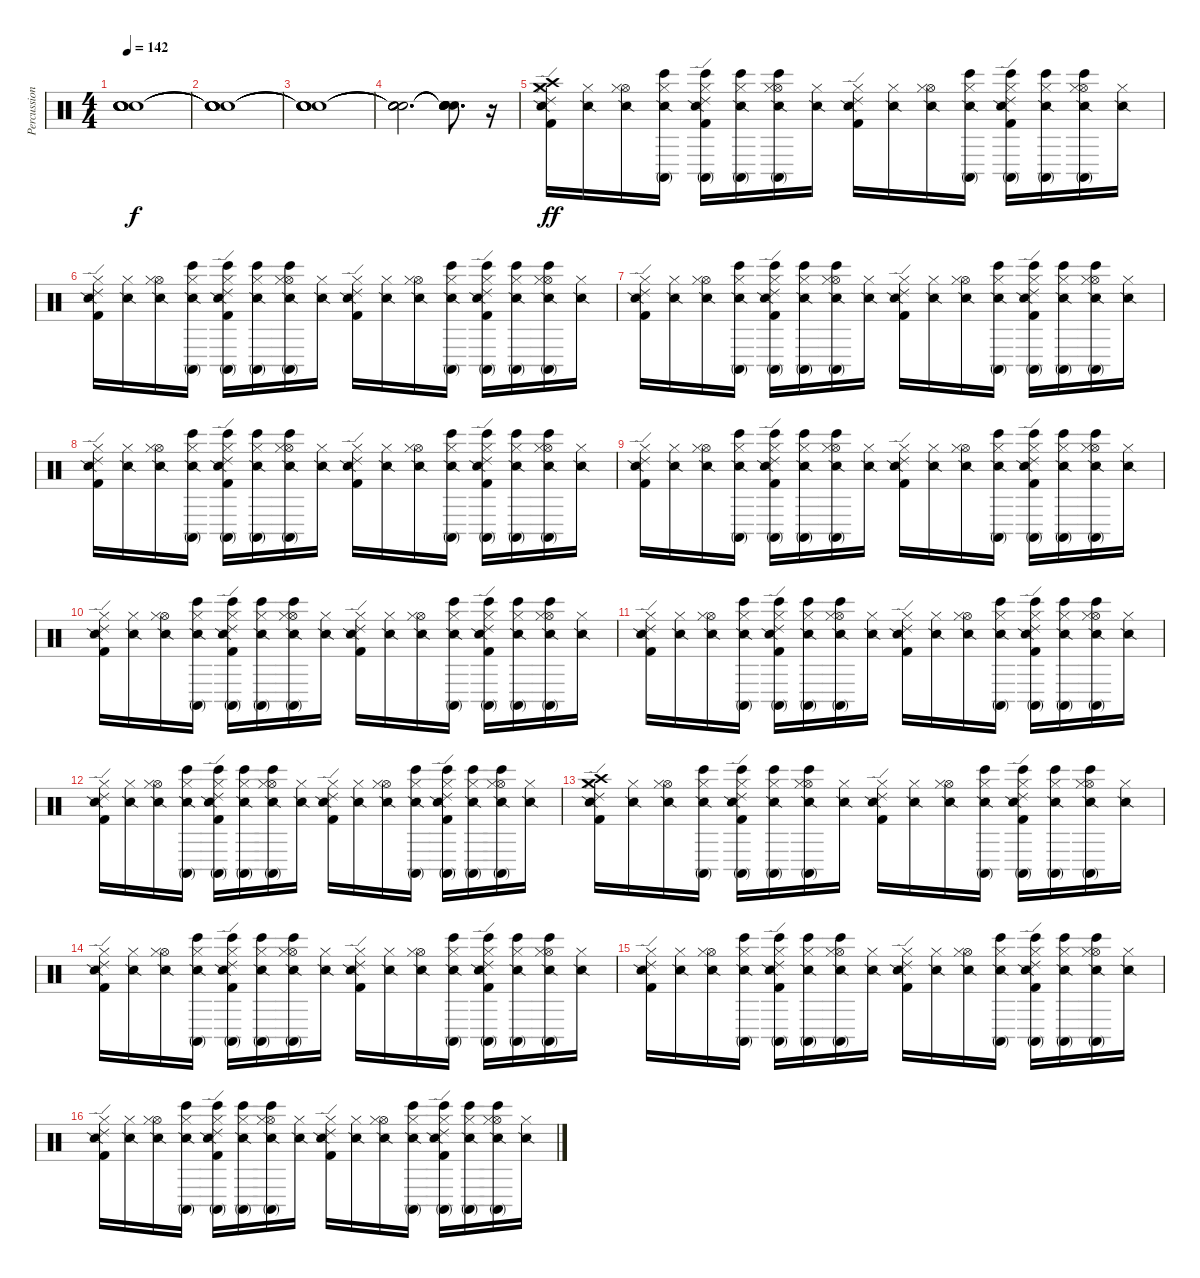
\track ("Percussion" "Percussion") {instrument percussion}
\staff {score}
\articulation defaults
\ts (4 4)
\tempo 142
\clef neutral
\ks c
("Snare (hit)"{t} "Snare (hit)"{t} "Snare (hit)"{t} "Snare (hit)"{t} "Snare (hit)"{t}).1{dy f} |
("Snare (hit)"{t} "Snare (hit)"{t} "Snare (hit)"{t} "Snare (hit)"{t} "Snare (hit)"{t}).1 |
("Snare (hit)"{t} "Snare (hit)"{t} "Snare (hit)"{t} "Snare (hit)"{t} "Snare (hit)"{t}).1 |
("Snare (hit)"{t} "Snare (hit)"{t} "Snare (hit)"{t} "Snare (hit)"{t} "Snare (hit)"{t}).2{d} ("Snare (hit)"{t} "Snare (hit)"{t} "Snare (hit)"{t} "Snare (hit)"{t} "Snare (hit)"{t}).8{d} r.16 |
("Ride (edge) 2" "Crash medium (hit)" "Crash high (hit)" "Hi-Hat (closed)" "Snare (side stick) 2" "Kick (hit) 2").16{dy ff} ("Hi-Hat (closed)" "Snare (side stick) 2").16 ("Hi-Hat (open)" "Hi-Hat (closed)" "Snare (side stick) 2").16 ("Conga high (mute)" "Bongo High (hit)" "Hi-Hat (closed)" "Snare (side stick) 2").16 ("Conga high (mute)" "Bongo High (hit)" "Ride (edge) 2" "Hi-Hat (closed)" "Snare (side stick) 2" "Kick (hit) 2").16 ("Conga high (mute)" "Bongo High (hit)" "Hi-Hat (closed)" "Snare (side stick) 2").16 ("Conga high (mute)" "Bongo High (hit)" "Hi-Hat (open)" "Hi-Hat (closed)" "Snare (side stick) 2").16 ("Hi-Hat (closed)" "Snare (side stick) 2").16 ("Ride (edge) 2" "Hi-Hat (closed)" "Snare (side stick) 2" "Kick (hit) 2").16 ("Hi-Hat (closed)" "Snare (side stick) 2").16 ("Hi-Hat (open)" "Hi-Hat (closed)" "Snare (side stick) 2").16 ("Conga high (mute)" "Bongo High (hit)" "Hi-Hat (closed)" "Snare (side stick) 2").16 ("Conga high (mute)" "Bongo High (hit)" "Ride (edge) 2" "Hi-Hat (closed)" "Snare (side stick) 2" "Kick (hit) 2").16 ("Conga high (mute)" "Bongo High (hit)" "Hi-Hat (closed)" "Snare (side stick) 2").16 ("Conga high (mute)" "Bongo High (hit)" "Hi-Hat (open)" "Hi-Hat (closed)" "Snare (side stick) 2").16 ("Hi-Hat (closed)" "Snare (side stick) 2").16 |
("Ride (edge) 2" "Hi-Hat (closed)" "Snare (side stick) 2" "Kick (hit) 2").16 ("Hi-Hat (closed)" "Snare (side stick) 2").16 ("Hi-Hat (open)" "Hi-Hat (closed)" "Snare (side stick) 2").16 ("Conga high (mute)" "Bongo High (hit)" "Hi-Hat (closed)" "Snare (side stick) 2").16 ("Conga high (mute)" "Bongo High (hit)" "Ride (edge) 2" "Hi-Hat (closed)" "Snare (side stick) 2" "Kick (hit) 2").16 ("Conga high (mute)" "Bongo High (hit)" "Hi-Hat (closed)" "Snare (side stick) 2").16 ("Conga high (mute)" "Bongo High (hit)" "Hi-Hat (open)" "Hi-Hat (closed)" "Snare (side stick) 2").16 ("Hi-Hat (closed)" "Snare (side stick) 2").16 ("Ride (edge) 2" "Hi-Hat (closed)" "Snare (side stick) 2" "Kick (hit) 2").16 ("Hi-Hat (closed)" "Snare (side stick) 2").16 ("Hi-Hat (open)" "Hi-Hat (closed)" "Snare (side stick) 2").16 ("Conga high (mute)" "Bongo High (hit)" "Hi-Hat (closed)" "Snare (side stick) 2").16 ("Conga high (mute)" "Bongo High (hit)" "Ride (edge) 2" "Hi-Hat (closed)" "Snare (side stick) 2" "Kick (hit) 2").16 ("Conga high (mute)" "Bongo High (hit)" "Hi-Hat (closed)" "Snare (side stick) 2").16 ("Conga high (mute)" "Bongo High (hit)" "Hi-Hat (open)" "Hi-Hat (closed)" "Snare (side stick) 2").16 ("Hi-Hat (closed)" "Snare (side stick) 2").16 |
("Ride (edge) 2" "Hi-Hat (closed)" "Snare (side stick) 2" "Kick (hit) 2").16 ("Hi-Hat (closed)" "Snare (side stick) 2").16 ("Hi-Hat (open)" "Hi-Hat (closed)" "Snare (side stick) 2").16 ("Conga high (mute)" "Bongo High (hit)" "Hi-Hat (closed)" "Snare (side stick) 2").16 ("Conga high (mute)" "Bongo High (hit)" "Ride (edge) 2" "Hi-Hat (closed)" "Snare (side stick) 2" "Kick (hit) 2").16 ("Conga high (mute)" "Bongo High (hit)" "Hi-Hat (closed)" "Snare (side stick) 2").16 ("Conga high (mute)" "Bongo High (hit)" "Hi-Hat (open)" "Hi-Hat (closed)" "Snare (side stick) 2").16 ("Hi-Hat (closed)" "Snare (side stick) 2").16 ("Ride (edge) 2" "Hi-Hat (closed)" "Snare (side stick) 2" "Kick (hit) 2").16 ("Hi-Hat (closed)" "Snare (side stick) 2").16 ("Hi-Hat (open)" "Hi-Hat (closed)" "Snare (side stick) 2").16 ("Conga high (mute)" "Bongo High (hit)" "Hi-Hat (closed)" "Snare (side stick) 2").16 ("Conga high (mute)" "Bongo High (hit)" "Ride (edge) 2" "Hi-Hat (closed)" "Snare (side stick) 2" "Kick (hit) 2").16 ("Conga high (mute)" "Bongo High (hit)" "Hi-Hat (closed)" "Snare (side stick) 2").16 ("Conga high (mute)" "Bongo High (hit)" "Hi-Hat (open)" "Hi-Hat (closed)" "Snare (side stick) 2").16 ("Hi-Hat (closed)" "Snare (side stick) 2").16 |
("Ride (edge) 2" "Hi-Hat (closed)" "Snare (side stick) 2" "Kick (hit) 2").16 ("Hi-Hat (closed)" "Snare (side stick) 2").16 ("Hi-Hat (open)" "Hi-Hat (closed)" "Snare (side stick) 2").16 ("Conga high (mute)" "Bongo High (hit)" "Hi-Hat (closed)" "Snare (side stick) 2").16 ("Conga high (mute)" "Bongo High (hit)" "Ride (edge) 2" "Hi-Hat (closed)" "Snare (side stick) 2" "Kick (hit) 2").16 ("Conga high (mute)" "Bongo High (hit)" "Hi-Hat (closed)" "Snare (side stick) 2").16 ("Conga high (mute)" "Bongo High (hit)" "Hi-Hat (open)" "Hi-Hat (closed)" "Snare (side stick) 2").16 ("Hi-Hat (closed)" "Snare (side stick) 2").16 ("Ride (edge) 2" "Hi-Hat (closed)" "Snare (side stick) 2" "Kick (hit) 2").16 ("Hi-Hat (closed)" "Snare (side stick) 2").16 ("Hi-Hat (open)" "Hi-Hat (closed)" "Snare (side stick) 2").16 ("Conga high (mute)" "Bongo High (hit)" "Hi-Hat (closed)" "Snare (side stick) 2").16 ("Conga high (mute)" "Bongo High (hit)" "Ride (edge) 2" "Hi-Hat (closed)" "Snare (side stick) 2" "Kick (hit) 2").16 ("Conga high (mute)" "Bongo High (hit)" "Hi-Hat (closed)" "Snare (side stick) 2").16 ("Conga high (mute)" "Bongo High (hit)" "Hi-Hat (open)" "Hi-Hat (closed)" "Snare (side stick) 2").16 ("Hi-Hat (closed)" "Snare (side stick) 2").16 |
("Ride (edge) 2" "Hi-Hat (closed)" "Snare (side stick) 2" "Kick (hit) 2").16 ("Hi-Hat (closed)" "Snare (side stick) 2").16 ("Hi-Hat (open)" "Hi-Hat (closed)" "Snare (side stick) 2").16 ("Conga high (mute)" "Bongo High (hit)" "Hi-Hat (closed)" "Snare (side stick) 2").16 ("Conga high (mute)" "Bongo High (hit)" "Ride (edge) 2" "Hi-Hat (closed)" "Snare (side stick) 2" "Kick (hit) 2").16 ("Conga high (mute)" "Bongo High (hit)" "Hi-Hat (closed)" "Snare (side stick) 2").16 ("Conga high (mute)" "Bongo High (hit)" "Hi-Hat (open)" "Hi-Hat (closed)" "Snare (side stick) 2").16 ("Hi-Hat (closed)" "Snare (side stick) 2").16 ("Ride (edge) 2" "Hi-Hat (closed)" "Snare (side stick) 2" "Kick (hit) 2").16 ("Hi-Hat (closed)" "Snare (side stick) 2").16 ("Hi-Hat (open)" "Hi-Hat (closed)" "Snare (side stick) 2").16 ("Conga high (mute)" "Bongo High (hit)" "Hi-Hat (closed)" "Snare (side stick) 2").16 ("Conga high (mute)" "Bongo High (hit)" "Ride (edge) 2" "Hi-Hat (closed)" "Snare (side stick) 2" "Kick (hit) 2").16 ("Conga high (mute)" "Bongo High (hit)" "Hi-Hat (closed)" "Snare (side stick) 2").16 ("Conga high (mute)" "Bongo High (hit)" "Hi-Hat (open)" "Hi-Hat (closed)" "Snare (side stick) 2").16 ("Hi-Hat (closed)" "Snare (side stick) 2").16 |
("Ride (edge) 2" "Hi-Hat (closed)" "Snare (side stick) 2" "Kick (hit) 2").16 ("Hi-Hat (closed)" "Snare (side stick) 2").16 ("Hi-Hat (open)" "Hi-Hat (closed)" "Snare (side stick) 2").16 ("Conga high (mute)" "Bongo High (hit)" "Hi-Hat (closed)" "Snare (side stick) 2").16 ("Conga high (mute)" "Bongo High (hit)" "Ride (edge) 2" "Hi-Hat (closed)" "Snare (side stick) 2" "Kick (hit) 2").16 ("Conga high (mute)" "Bongo High (hit)" "Hi-Hat (closed)" "Snare (side stick) 2").16 ("Conga high (mute)" "Bongo High (hit)" "Hi-Hat (open)" "Hi-Hat (closed)" "Snare (side stick) 2").16 ("Hi-Hat (closed)" "Snare (side stick) 2").16 ("Ride (edge) 2" "Hi-Hat (closed)" "Snare (side stick) 2" "Kick (hit) 2").16 ("Hi-Hat (closed)" "Snare (side stick) 2").16 ("Hi-Hat (open)" "Hi-Hat (closed)" "Snare (side stick) 2").16 ("Conga high (mute)" "Bongo High (hit)" "Hi-Hat (closed)" "Snare (side stick) 2").16 ("Conga high (mute)" "Bongo High (hit)" "Ride (edge) 2" "Hi-Hat (closed)" "Snare (side stick) 2" "Kick (hit) 2").16 ("Conga high (mute)" "Bongo High (hit)" "Hi-Hat (closed)" "Snare (side stick) 2").16 ("Conga high (mute)" "Bongo High (hit)" "Hi-Hat (open)" "Hi-Hat (closed)" "Snare (side stick) 2").16 ("Hi-Hat (closed)" "Snare (side stick) 2").16 |
("Ride (edge) 2" "Hi-Hat (closed)" "Snare (side stick) 2" "Kick (hit) 2").16 ("Hi-Hat (closed)" "Snare (side stick) 2").16 ("Hi-Hat (open)" "Hi-Hat (closed)" "Snare (side stick) 2").16 ("Conga high (mute)" "Bongo High (hit)" "Hi-Hat (closed)" "Snare (side stick) 2").16 ("Conga high (mute)" "Bongo High (hit)" "Ride (edge) 2" "Hi-Hat (closed)" "Snare (side stick) 2" "Kick (hit) 2").16 ("Conga high (mute)" "Bongo High (hit)" "Hi-Hat (closed)" "Snare (side stick) 2").16 ("Conga high (mute)" "Bongo High (hit)" "Hi-Hat (open)" "Hi-Hat (closed)" "Snare (side stick) 2").16 ("Hi-Hat (closed)" "Snare (side stick) 2").16 ("Ride (edge) 2" "Hi-Hat (closed)" "Snare (side stick) 2" "Kick (hit) 2").16 ("Hi-Hat (closed)" "Snare (side stick) 2").16 ("Hi-Hat (open)" "Hi-Hat (closed)" "Snare (side stick) 2").16 ("Conga high (mute)" "Bongo High (hit)" "Hi-Hat (closed)" "Snare (side stick) 2").16 ("Conga high (mute)" "Bongo High (hit)" "Ride (edge) 2" "Hi-Hat (closed)" "Snare (side stick) 2" "Kick (hit) 2").16 ("Conga high (mute)" "Bongo High (hit)" "Hi-Hat (closed)" "Snare (side stick) 2").16 ("Conga high (mute)" "Bongo High (hit)" "Hi-Hat (open)" "Hi-Hat (closed)" "Snare (side stick) 2").16 ("Hi-Hat (closed)" "Snare (side stick) 2").16 |
("Ride (edge) 2" "Hi-Hat (closed)" "Snare (side stick) 2" "Kick (hit) 2").16 ("Hi-Hat (closed)" "Snare (side stick) 2").16 ("Hi-Hat (open)" "Hi-Hat (closed)" "Snare (side stick) 2").16 ("Conga high (mute)" "Bongo High (hit)" "Hi-Hat (closed)" "Snare (side stick) 2").16 ("Conga high (mute)" "Bongo High (hit)" "Ride (edge) 2" "Hi-Hat (closed)" "Snare (side stick) 2" "Kick (hit) 2").16 ("Conga high (mute)" "Bongo High (hit)" "Hi-Hat (closed)" "Snare (side stick) 2").16 ("Conga high (mute)" "Bongo High (hit)" "Hi-Hat (open)" "Hi-Hat (closed)" "Snare (side stick) 2").16 ("Hi-Hat (closed)" "Snare (side stick) 2").16 ("Ride (edge) 2" "Hi-Hat (closed)" "Snare (side stick) 2" "Kick (hit) 2").16 ("Hi-Hat (closed)" "Snare (side stick) 2").16 ("Hi-Hat (open)" "Hi-Hat (closed)" "Snare (side stick) 2").16 ("Conga high (mute)" "Bongo High (hit)" "Hi-Hat (closed)" "Snare (side stick) 2").16 ("Conga high (mute)" "Bongo High (hit)" "Ride (edge) 2" "Hi-Hat (closed)" "Snare (side stick) 2" "Kick (hit) 2").16 ("Conga high (mute)" "Bongo High (hit)" "Hi-Hat (closed)" "Snare (side stick) 2").16 ("Conga high (mute)" "Bongo High (hit)" "Hi-Hat (open)" "Hi-Hat (closed)" "Snare (side stick) 2").16 ("Hi-Hat (closed)" "Snare (side stick) 2").16 |
("Ride (edge) 2" "Crash medium (hit)" "Crash high (hit)" "Hi-Hat (closed)" "Snare (side stick) 2" "Kick (hit) 2").16 ("Hi-Hat (closed)" "Snare (side stick) 2").16 ("Hi-Hat (open)" "Hi-Hat (closed)" "Snare (side stick) 2").16 ("Conga high (mute)" "Bongo High (hit)" "Hi-Hat (closed)" "Snare (side stick) 2").16 ("Conga high (mute)" "Bongo High (hit)" "Ride (edge) 2" "Hi-Hat (closed)" "Snare (side stick) 2" "Kick (hit) 2").16 ("Conga high (mute)" "Bongo High (hit)" "Hi-Hat (closed)" "Snare (side stick) 2").16 ("Conga high (mute)" "Bongo High (hit)" "Hi-Hat (open)" "Hi-Hat (closed)" "Snare (side stick) 2").16 ("Hi-Hat (closed)" "Snare (side stick) 2").16 ("Ride (edge) 2" "Hi-Hat (closed)" "Snare (side stick) 2" "Kick (hit) 2").16 ("Hi-Hat (closed)" "Snare (side stick) 2").16 ("Hi-Hat (open)" "Hi-Hat (closed)" "Snare (side stick) 2").16 ("Conga high (mute)" "Bongo High (hit)" "Hi-Hat (closed)" "Snare (side stick) 2").16 ("Conga high (mute)" "Bongo High (hit)" "Ride (edge) 2" "Hi-Hat (closed)" "Snare (side stick) 2" "Kick (hit) 2").16 ("Conga high (mute)" "Bongo High (hit)" "Hi-Hat (closed)" "Snare (side stick) 2").16 ("Conga high (mute)" "Bongo High (hit)" "Hi-Hat (open)" "Hi-Hat (closed)" "Snare (side stick) 2").16 ("Hi-Hat (closed)" "Snare (side stick) 2").16 |
("Ride (edge) 2" "Hi-Hat (closed)" "Snare (side stick) 2" "Kick (hit) 2").16 ("Hi-Hat (closed)" "Snare (side stick) 2").16 ("Hi-Hat (open)" "Hi-Hat (closed)" "Snare (side stick) 2").16 ("Conga high (mute)" "Bongo High (hit)" "Hi-Hat (closed)" "Snare (side stick) 2").16 ("Conga high (mute)" "Bongo High (hit)" "Ride (edge) 2" "Hi-Hat (closed)" "Snare (side stick) 2" "Kick (hit) 2").16 ("Conga high (mute)" "Bongo High (hit)" "Hi-Hat (closed)" "Snare (side stick) 2").16 ("Conga high (mute)" "Bongo High (hit)" "Hi-Hat (open)" "Hi-Hat (closed)" "Snare (side stick) 2").16 ("Hi-Hat (closed)" "Snare (side stick) 2").16 ("Ride (edge) 2" "Hi-Hat (closed)" "Snare (side stick) 2" "Kick (hit) 2").16 ("Hi-Hat (closed)" "Snare (side stick) 2").16 ("Hi-Hat (open)" "Hi-Hat (closed)" "Snare (side stick) 2").16 ("Conga high (mute)" "Bongo High (hit)" "Hi-Hat (closed)" "Snare (side stick) 2").16 ("Conga high (mute)" "Bongo High (hit)" "Ride (edge) 2" "Hi-Hat (closed)" "Snare (side stick) 2" "Kick (hit) 2").16 ("Conga high (mute)" "Bongo High (hit)" "Hi-Hat (closed)" "Snare (side stick) 2").16 ("Conga high (mute)" "Bongo High (hit)" "Hi-Hat (open)" "Hi-Hat (closed)" "Snare (side stick) 2").16 ("Hi-Hat (closed)" "Snare (side stick) 2").16 |
("Ride (edge) 2" "Hi-Hat (closed)" "Snare (side stick) 2" "Kick (hit) 2").16 ("Hi-Hat (closed)" "Snare (side stick) 2").16 ("Hi-Hat (open)" "Hi-Hat (closed)" "Snare (side stick) 2").16 ("Conga high (mute)" "Bongo High (hit)" "Hi-Hat (closed)" "Snare (side stick) 2").16 ("Conga high (mute)" "Bongo High (hit)" "Ride (edge) 2" "Hi-Hat (closed)" "Snare (side stick) 2" "Kick (hit) 2").16 ("Conga high (mute)" "Bongo High (hit)" "Hi-Hat (closed)" "Snare (side stick) 2").16 ("Conga high (mute)" "Bongo High (hit)" "Hi-Hat (open)" "Hi-Hat (closed)" "Snare (side stick) 2").16 ("Hi-Hat (closed)" "Snare (side stick) 2").16 ("Ride (edge) 2" "Hi-Hat (closed)" "Snare (side stick) 2" "Kick (hit) 2").16 ("Hi-Hat (closed)" "Snare (side stick) 2").16 ("Hi-Hat (open)" "Hi-Hat (closed)" "Snare (side stick) 2").16 ("Conga high (mute)" "Bongo High (hit)" "Hi-Hat (closed)" "Snare (side stick) 2").16 ("Conga high (mute)" "Bongo High (hit)" "Ride (edge) 2" "Hi-Hat (closed)" "Snare (side stick) 2" "Kick (hit) 2").16 ("Conga high (mute)" "Bongo High (hit)" "Hi-Hat (closed)" "Snare (side stick) 2").16 ("Conga high (mute)" "Bongo High (hit)" "Hi-Hat (open)" "Hi-Hat (closed)" "Snare (side stick) 2").16 ("Hi-Hat (closed)" "Snare (side stick) 2").16 |
("Ride (edge) 2" "Hi-Hat (closed)" "Snare (side stick) 2" "Kick (hit) 2").16 ("Hi-Hat (closed)" "Snare (side stick) 2").16 ("Hi-Hat (open)" "Hi-Hat (closed)" "Snare (side stick) 2").16 ("Conga high (mute)" "Bongo High (hit)" "Hi-Hat (closed)" "Snare (side stick) 2").16 ("Conga high (mute)" "Bongo High (hit)" "Ride (edge) 2" "Hi-Hat (closed)" "Snare (side stick) 2" "Kick (hit) 2").16 ("Conga high (mute)" "Bongo High (hit)" "Hi-Hat (closed)" "Snare (side stick) 2").16 ("Conga high (mute)" "Bongo High (hit)" "Hi-Hat (open)" "Hi-Hat (closed)" "Snare (side stick) 2").16 ("Hi-Hat (closed)" "Snare (side stick) 2").16 ("Ride (edge) 2" "Hi-Hat (closed)" "Snare (side stick) 2" "Kick (hit) 2").16 ("Hi-Hat (closed)" "Snare (side stick) 2").16 ("Hi-Hat (open)" "Hi-Hat (closed)" "Snare (side stick) 2").16 ("Conga high (mute)" "Bongo High (hit)" "Hi-Hat (closed)" "Snare (side stick) 2").16 ("Conga high (mute)" "Bongo High (hit)" "Ride (edge) 2" "Hi-Hat (closed)" "Snare (side stick) 2" "Kick (hit) 2").16 ("Conga high (mute)" "Bongo High (hit)" "Hi-Hat (closed)" "Snare (side stick) 2").16 ("Conga high (mute)" "Bongo High (hit)" "Hi-Hat (open)" "Hi-Hat (closed)" "Snare (side stick) 2").16 ("Hi-Hat (closed)" "Snare (side stick) 2").16
